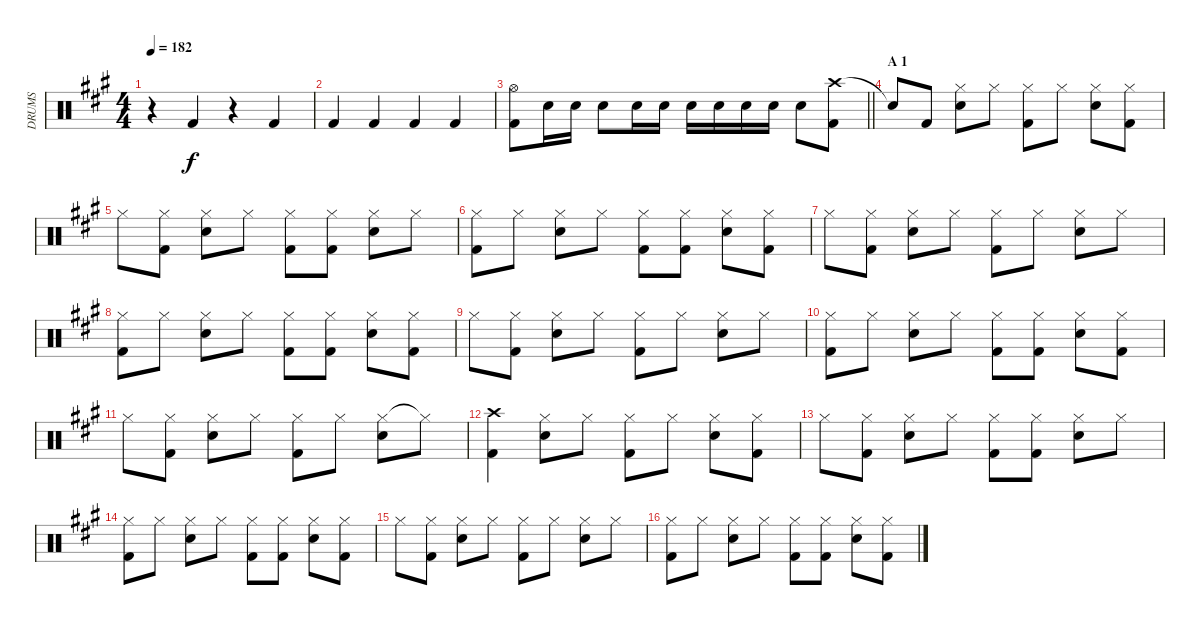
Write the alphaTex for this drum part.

\track ("DRUMS" "DRUMS") {instrument percussion}
\staff {score}
\articulation defaults
\ts (4 4)
\tempo 182
\clef neutral
\ks a
r.4{dy f} "Kick (hit) 2".4 r.4 "Kick (hit) 2".4 |
"Kick (hit) 2".4 "Kick (hit) 2".4 "Kick (hit) 2".4 "Kick (hit) 2".4 |
\barLineRight lightlight
("Hi-Hat (open)" "Kick (hit) 2").8 "Snare (hit) 2".16 "Snare (hit) 2".16 "Snare (hit) 2".8 "Snare (hit) 2".16 "Snare (hit) 2".16 "Snare (hit) 2".16 "Snare (hit) 2".16 "Snare (hit) 2".16 "Snare (hit) 2".16 "Snare (hit) 2".8 ("Crash high (hit)" "Kick (hit) 2").8 |
\section ("" "A 1")
"Snare (hit)"{t}.8 "Kick (hit) 2".8 ("Hi-Hat (closed)" "Snare (hit) 2").8 "Hi-Hat (closed)".8 ("Hi-Hat (closed)" "Kick (hit) 2").8 "Hi-Hat (closed)".8 ("Hi-Hat (closed)" "Snare (hit) 2").8 ("Hi-Hat (closed)" "Kick (hit) 2").8 |
"Hi-Hat (closed)".8 ("Hi-Hat (closed)" "Kick (hit) 2").8 ("Hi-Hat (closed)" "Snare (hit) 2").8 "Hi-Hat (closed)".8 ("Hi-Hat (closed)" "Kick (hit) 2").8 ("Hi-Hat (closed)" "Kick (hit) 2").8 ("Hi-Hat (closed)" "Snare (hit) 2").8 "Hi-Hat (closed)".8 |
("Hi-Hat (closed)" "Kick (hit) 2").8 "Hi-Hat (closed)".8 ("Hi-Hat (closed)" "Snare (hit) 2").8 "Hi-Hat (closed)".8 ("Hi-Hat (closed)" "Kick (hit) 2").8 ("Hi-Hat (closed)" "Kick (hit) 2").8 ("Hi-Hat (closed)" "Snare (hit) 2").8 ("Hi-Hat (closed)" "Kick (hit) 2").8 |
"Hi-Hat (closed)".8 ("Hi-Hat (closed)" "Kick (hit) 2").8 ("Hi-Hat (closed)" "Snare (hit) 2").8 "Hi-Hat (closed)".8 ("Hi-Hat (closed)" "Kick (hit) 2").8 "Hi-Hat (closed)".8 ("Hi-Hat (closed)" "Snare (hit) 2").8 "Hi-Hat (closed)".8 |
("Hi-Hat (closed)" "Kick (hit) 2").8 "Hi-Hat (closed)".8 ("Hi-Hat (closed)" "Snare (hit) 2").8 "Hi-Hat (closed)".8 ("Hi-Hat (closed)" "Kick (hit) 2").8 ("Hi-Hat (closed)" "Kick (hit) 2").8 ("Hi-Hat (closed)" "Snare (hit) 2").8 ("Hi-Hat (closed)" "Kick (hit) 2").8 |
"Hi-Hat (closed)".8 ("Hi-Hat (closed)" "Kick (hit) 2").8 ("Hi-Hat (closed)" "Snare (hit) 2").8 "Hi-Hat (closed)".8 ("Hi-Hat (closed)" "Kick (hit) 2").8 "Hi-Hat (closed)".8 ("Hi-Hat (closed)" "Snare (hit) 2").8 "Hi-Hat (closed)".8 |
("Hi-Hat (closed)" "Kick (hit) 2").8 "Hi-Hat (closed)".8 ("Hi-Hat (closed)" "Snare (hit) 2").8 "Hi-Hat (closed)".8 ("Hi-Hat (closed)" "Kick (hit) 2").8 ("Hi-Hat (closed)" "Kick (hit) 2").8 ("Hi-Hat (closed)" "Snare (hit) 2").8 ("Hi-Hat (closed)" "Kick (hit) 2").8 |
"Hi-Hat (closed)".8 ("Hi-Hat (closed)" "Kick (hit) 2").8 ("Hi-Hat (closed)" "Snare (hit) 2").8 "Hi-Hat (closed)".8 ("Hi-Hat (closed)" "Kick (hit) 2").8 "Hi-Hat (closed)".8 ("Hi-Hat (closed)" "Snare (hit) 2").8 "Hi-Hat (closed)"{t}.8 |
("Crash high (hit)" "Kick (hit) 2").4 ("Hi-Hat (closed)" "Snare (hit) 2").8 "Hi-Hat (closed)".8 ("Hi-Hat (closed)" "Kick (hit) 2").8 "Hi-Hat (closed)".8 ("Hi-Hat (closed)" "Snare (hit) 2").8 ("Hi-Hat (closed)" "Kick (hit) 2").8 |
"Hi-Hat (closed)".8 ("Hi-Hat (closed)" "Kick (hit) 2").8 ("Hi-Hat (closed)" "Snare (hit) 2").8 "Hi-Hat (closed)".8 ("Hi-Hat (closed)" "Kick (hit) 2").8 ("Hi-Hat (closed)" "Kick (hit) 2").8 ("Hi-Hat (closed)" "Snare (hit) 2").8 "Hi-Hat (closed)".8 |
("Hi-Hat (closed)" "Kick (hit) 2").8 "Hi-Hat (closed)".8 ("Hi-Hat (closed)" "Snare (hit) 2").8 "Hi-Hat (closed)".8 ("Hi-Hat (closed)" "Kick (hit) 2").8 ("Hi-Hat (closed)" "Kick (hit) 2").8 ("Hi-Hat (closed)" "Snare (hit) 2").8 ("Hi-Hat (closed)" "Kick (hit) 2").8 |
"Hi-Hat (closed)".8 ("Hi-Hat (closed)" "Kick (hit) 2").8 ("Hi-Hat (closed)" "Snare (hit) 2").8 "Hi-Hat (closed)".8 ("Hi-Hat (closed)" "Kick (hit) 2").8 "Hi-Hat (closed)".8 ("Hi-Hat (closed)" "Snare (hit) 2").8 "Hi-Hat (closed)".8 |
("Hi-Hat (closed)" "Kick (hit) 2").8 "Hi-Hat (closed)".8 ("Hi-Hat (closed)" "Snare (hit) 2").8 "Hi-Hat (closed)".8 ("Hi-Hat (closed)" "Kick (hit) 2").8 ("Hi-Hat (closed)" "Kick (hit) 2").8 ("Hi-Hat (closed)" "Snare (hit) 2").8 ("Hi-Hat (closed)" "Kick (hit) 2").8
